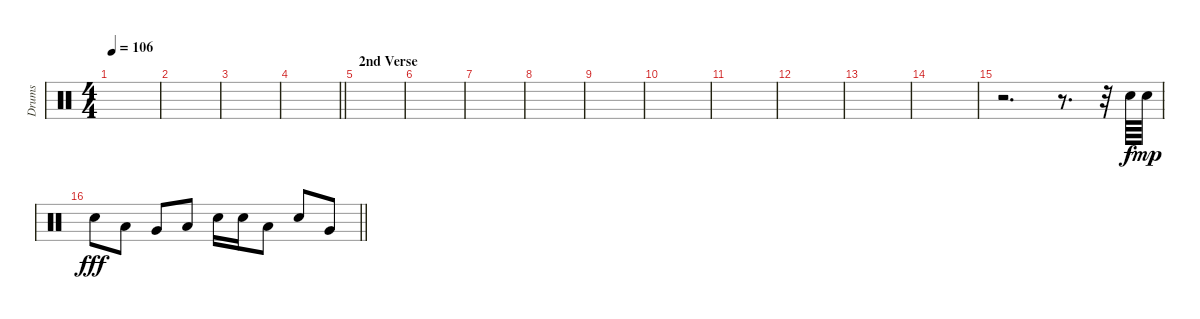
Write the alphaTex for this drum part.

\track ("Drums" "Drums") {instrument percussion}
\staff {score}
\articulation defaults
\ts (4 4)
\tempo 106
\clef neutral
\ks c
|
|
|
\barLineRight lightlight
|
\section ("" "2nd Verse")
|
|
|
|
|
|
|
|
|
|
r.2{d} r.8{d} r.32 "Snare (hit) 2".64 "Snare (hit) 2".64{dy mp} |
\barLineRight lightlight "Snare (hit) 2".8{dy fff} "Low Tom (hit)".8 "Very Low Tom (hit)".8 "Low Floor Tom (hit)".8 "Snare (hit) 2".16 "Snare (hit) 2".16 "Low Tom (hit)".8 "Snare (hit) 2".8 "Very Low Tom (hit)".8
